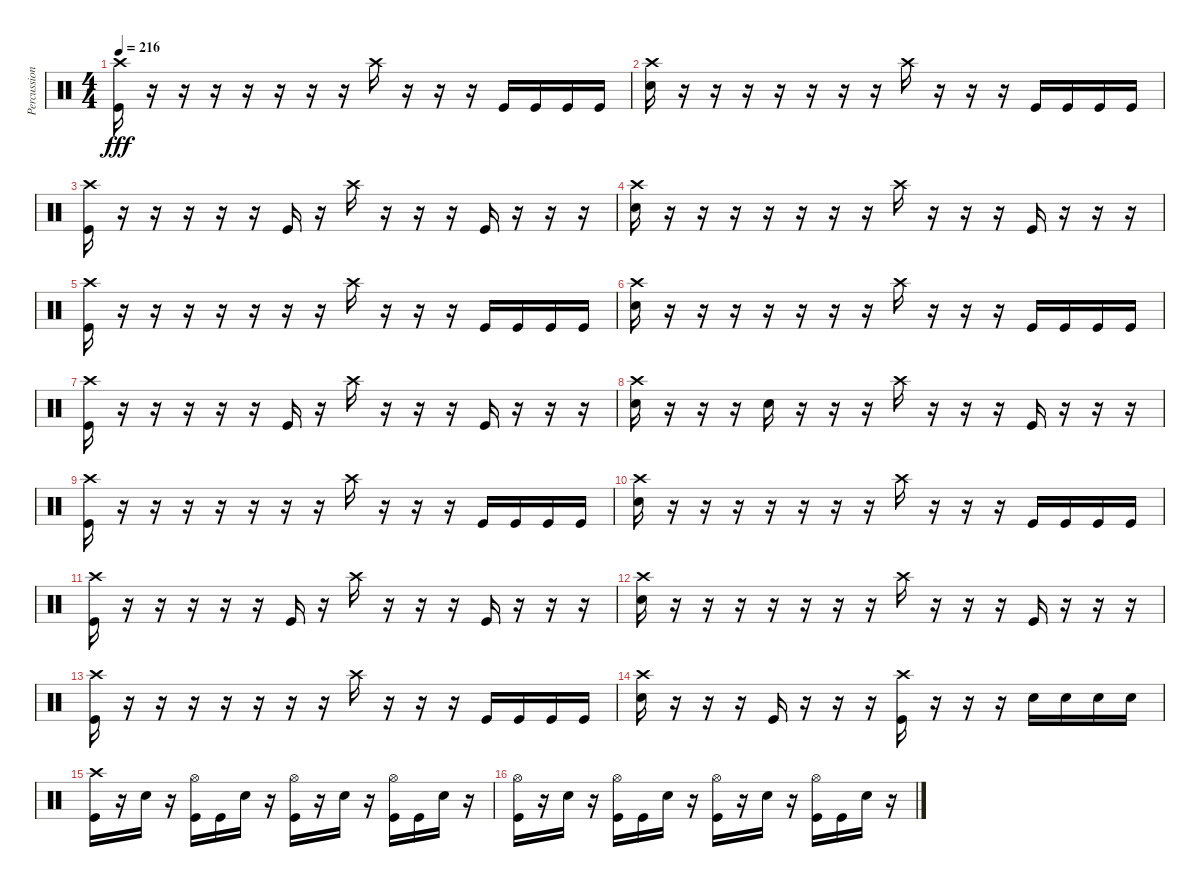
\track ("Percussion" "Percussion") {instrument percussion}
\staff {score}
\articulation defaults
\ts (4 4)
\tempo 216
\clef neutral
\ks c
("Crash high (hit)" "Kick (hit)").16{dy fff} r.16 r.16 r.16 r.16 r.16 r.16 r.16 "Crash high (hit)".16 r.16 r.16 r.16 "Kick (hit)".16 "Kick (hit)".16 "Kick (hit)".16 "Kick (hit)".16 |
("Crash high (hit)" "Electric Snare (hit)").16 r.16 r.16 r.16 r.16 r.16 r.16 r.16 "Crash high (hit)".16 r.16 r.16 r.16 "Kick (hit)".16 "Kick (hit)".16 "Kick (hit)".16 "Kick (hit)".16 |
("Crash high (hit)" "Kick (hit)").16 r.16 r.16 r.16 r.16 r.16 "Kick (hit)".16 r.16 "Crash high (hit)".16 r.16 r.16 r.16 "Kick (hit)".16 r.16 r.16 r.16 |
("Crash high (hit)" "Electric Snare (hit)").16 r.16 r.16 r.16 r.16 r.16 r.16 r.16 "Crash high (hit)".16 r.16 r.16 r.16 "Kick (hit)".16 r.16 r.16 r.16 |
("Crash high (hit)" "Kick (hit)").16 r.16 r.16 r.16 r.16 r.16 r.16 r.16 "Crash high (hit)".16 r.16 r.16 r.16 "Kick (hit)".16 "Kick (hit)".16 "Kick (hit)".16 "Kick (hit)".16 |
("Crash high (hit)" "Electric Snare (hit)").16 r.16 r.16 r.16 r.16 r.16 r.16 r.16 "Crash high (hit)".16 r.16 r.16 r.16 "Kick (hit)".16 "Kick (hit)".16 "Kick (hit)".16 "Kick (hit)".16 |
("Crash high (hit)" "Kick (hit)").16 r.16 r.16 r.16 r.16 r.16 "Kick (hit)".16 r.16 "Crash high (hit)".16 r.16 r.16 r.16 "Kick (hit)".16 r.16 r.16 r.16 |
("Crash high (hit)" "Electric Snare (hit)").16 r.16 r.16 r.16 "Electric Snare (hit)".16 r.16 r.16 r.16 "Crash high (hit)".16 r.16 r.16 r.16 "Kick (hit)".16 r.16 r.16 r.16 |
("Crash high (hit)" "Kick (hit)").16 r.16 r.16 r.16 r.16 r.16 r.16 r.16 "Crash high (hit)".16 r.16 r.16 r.16 "Kick (hit)".16 "Kick (hit)".16 "Kick (hit)".16 "Kick (hit)".16 |
("Crash high (hit)" "Electric Snare (hit)").16 r.16 r.16 r.16 r.16 r.16 r.16 r.16 "Crash high (hit)".16 r.16 r.16 r.16 "Kick (hit)".16 "Kick (hit)".16 "Kick (hit)".16 "Kick (hit)".16 |
("Crash high (hit)" "Kick (hit)").16 r.16 r.16 r.16 r.16 r.16 "Kick (hit)".16 r.16 "Crash high (hit)".16 r.16 r.16 r.16 "Kick (hit)".16 r.16 r.16 r.16 |
("Crash high (hit)" "Electric Snare (hit)").16 r.16 r.16 r.16 r.16 r.16 r.16 r.16 "Crash high (hit)".16 r.16 r.16 r.16 "Kick (hit)".16 r.16 r.16 r.16 |
("Crash high (hit)" "Kick (hit)").16 r.16 r.16 r.16 r.16 r.16 r.16 r.16 "Crash high (hit)".16 r.16 r.16 r.16 "Kick (hit)".16 "Kick (hit)".16 "Kick (hit)".16 "Kick (hit)".16 |
("Crash high (hit)" "Electric Snare (hit)").16 r.16 r.16 r.16 "Kick (hit)".16 r.16 r.16 r.16 ("Crash high (hit)" "Kick (hit)").16 r.16 r.16 r.16 "Electric Snare (hit)".16 "Electric Snare (hit)".16 "Electric Snare (hit)".16 "Electric Snare (hit)".16 |
("Crash high (hit)" "Kick (hit)").16 r.16 "Electric Snare (hit)".16 r.16 ("Hi-Hat (open)" "Kick (hit)").16 "Kick (hit)".16 "Electric Snare (hit)".16 r.16 ("Hi-Hat (open)" "Kick (hit)").16 r.16 "Electric Snare (hit)".16 r.16 ("Hi-Hat (open)" "Kick (hit)").16 "Kick (hit)".16 "Electric Snare (hit)".16 r.16 |
("Hi-Hat (open)" "Kick (hit)").16 r.16 "Electric Snare (hit)".16 r.16 ("Hi-Hat (open)" "Kick (hit)").16 "Kick (hit)".16 "Electric Snare (hit)".16 r.16 ("Hi-Hat (open)" "Kick (hit)").16 r.16 "Electric Snare (hit)".16 r.16 ("Hi-Hat (open)" "Kick (hit)").16 "Kick (hit)".16 "Electric Snare (hit)".16 r.16
